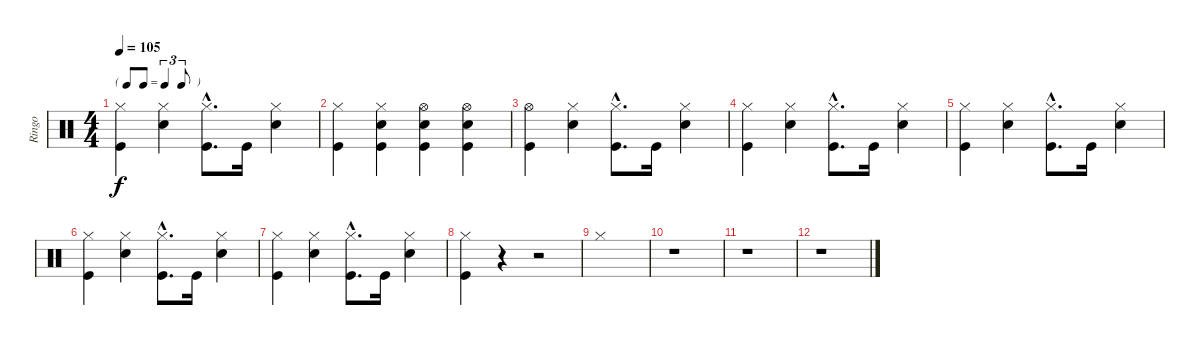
\track ("Ringo" "Ringo") {instrument percussion}
\staff {score}
\articulation defaults
\ts (4 4)
\tf triplet8th
\tempo 105
\clef neutral
\ks c
("Hi-Hat (closed)" "Kick (hit)").4{dy f} ("Hi-Hat (closed)" "Snare (hit) 2").4 ("Hi-Hat (closed)"{hac} "Kick (hit)"{hac}).8{d} "Kick (hit)".16 ("Hi-Hat (closed)" "Snare (hit) 2").4 |
("Hi-Hat (closed)" "Kick (hit)").4 ("Hi-Hat (closed)" "Snare (hit) 2" "Kick (hit)").4 ("Hi-Hat (open)" "Snare (hit) 2" "Kick (hit)").4 ("Hi-Hat (open)" "Snare (hit) 2" "Kick (hit)").4 |
("Hi-Hat (open)" "Kick (hit)").4 ("Hi-Hat (closed)" "Snare (hit) 2").4 ("Hi-Hat (closed)"{hac} "Kick (hit)"{hac}).8{d} "Kick (hit)".16 ("Hi-Hat (closed)" "Snare (hit) 2").4 |
("Hi-Hat (closed)" "Kick (hit)").4 ("Hi-Hat (closed)" "Snare (hit) 2").4 ("Hi-Hat (closed)"{hac} "Kick (hit)"{hac}).8{d} "Kick (hit)".16 ("Hi-Hat (closed)" "Snare (hit) 2").4 |
("Hi-Hat (closed)" "Kick (hit)").4 ("Hi-Hat (closed)" "Snare (hit) 2").4 ("Hi-Hat (closed)"{hac} "Kick (hit)"{hac}).8{d} "Kick (hit)".16 ("Hi-Hat (closed)" "Snare (hit) 2").4 |
("Hi-Hat (closed)" "Kick (hit)").4 ("Hi-Hat (closed)" "Snare (hit) 2").4 ("Hi-Hat (closed)"{hac} "Kick (hit)"{hac}).8{d} "Kick (hit)".16 ("Hi-Hat (closed)" "Snare (hit) 2").4 |
("Hi-Hat (closed)" "Kick (hit)").4 ("Hi-Hat (closed)" "Snare (hit) 2").4 ("Hi-Hat (closed)"{hac} "Kick (hit)"{hac}).8{d} "Kick (hit)".16 ("Hi-Hat (closed)" "Snare (hit) 2").4 |
("Hi-Hat (closed)" "Kick (hit)").4 r.4 r.2 |
"Hi-Hat (closed)".1 |
r.1 |
r.1 |
r.1
